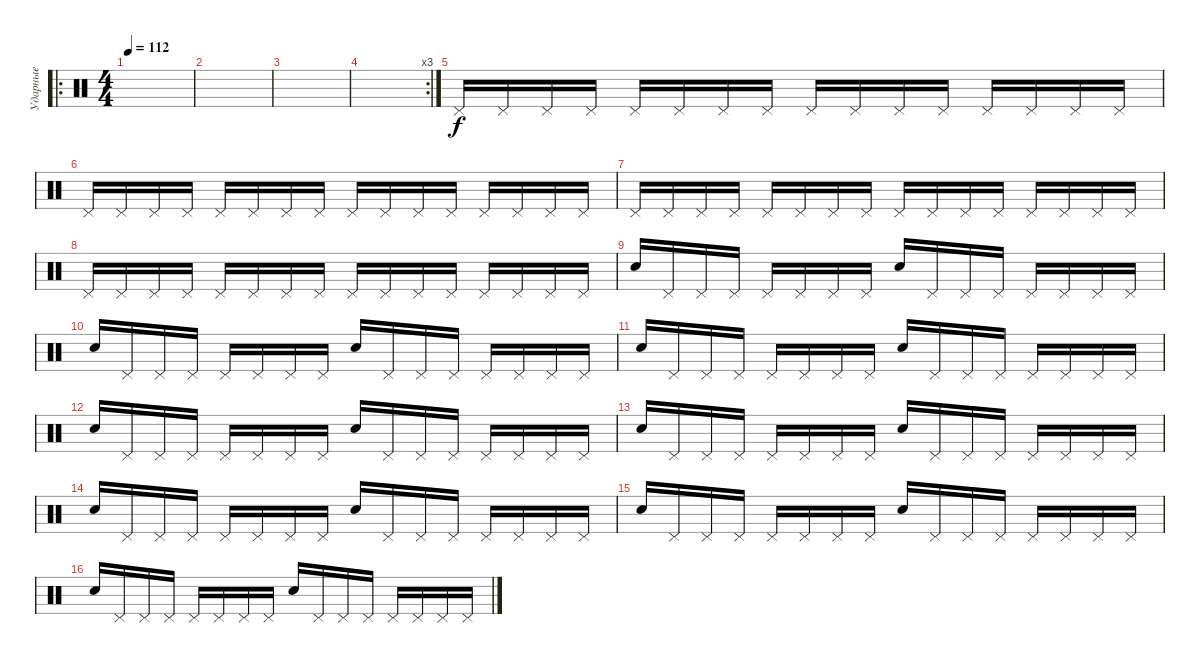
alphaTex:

\track ("Ударные" "Ударные") {instrument percussion}
\staff {score}
\articulation defaults
\ro
\ts (4 4)
\tempo 112
\clef neutral
\ks c
|
|
|
\rc 3
|
"Pedal Hi-Hat (hit)".16 "Pedal Hi-Hat (hit)".16 "Pedal Hi-Hat (hit)".16 "Pedal Hi-Hat (hit)".16 "Pedal Hi-Hat (hit)".16 "Pedal Hi-Hat (hit)".16 "Pedal Hi-Hat (hit)".16 "Pedal Hi-Hat (hit)".16 "Pedal Hi-Hat (hit)".16 "Pedal Hi-Hat (hit)".16 "Pedal Hi-Hat (hit)".16 "Pedal Hi-Hat (hit)".16 "Pedal Hi-Hat (hit)".16 "Pedal Hi-Hat (hit)".16 "Pedal Hi-Hat (hit)".16 "Pedal Hi-Hat (hit)".16 |
"Pedal Hi-Hat (hit)".16 "Pedal Hi-Hat (hit)".16 "Pedal Hi-Hat (hit)".16 "Pedal Hi-Hat (hit)".16 "Pedal Hi-Hat (hit)".16 "Pedal Hi-Hat (hit)".16 "Pedal Hi-Hat (hit)".16 "Pedal Hi-Hat (hit)".16 "Pedal Hi-Hat (hit)".16 "Pedal Hi-Hat (hit)".16 "Pedal Hi-Hat (hit)".16 "Pedal Hi-Hat (hit)".16 "Pedal Hi-Hat (hit)".16 "Pedal Hi-Hat (hit)".16 "Pedal Hi-Hat (hit)".16 "Pedal Hi-Hat (hit)".16 |
"Pedal Hi-Hat (hit)".16 "Pedal Hi-Hat (hit)".16 "Pedal Hi-Hat (hit)".16 "Pedal Hi-Hat (hit)".16 "Pedal Hi-Hat (hit)".16 "Pedal Hi-Hat (hit)".16 "Pedal Hi-Hat (hit)".16 "Pedal Hi-Hat (hit)".16 "Pedal Hi-Hat (hit)".16 "Pedal Hi-Hat (hit)".16 "Pedal Hi-Hat (hit)".16 "Pedal Hi-Hat (hit)".16 "Pedal Hi-Hat (hit)".16 "Pedal Hi-Hat (hit)".16 "Pedal Hi-Hat (hit)".16 "Pedal Hi-Hat (hit)".16 |
"Pedal Hi-Hat (hit)".16 "Pedal Hi-Hat (hit)".16 "Pedal Hi-Hat (hit)".16 "Pedal Hi-Hat (hit)".16 "Pedal Hi-Hat (hit)".16 "Pedal Hi-Hat (hit)".16 "Pedal Hi-Hat (hit)".16 "Pedal Hi-Hat (hit)".16 "Pedal Hi-Hat (hit)".16 "Pedal Hi-Hat (hit)".16 "Pedal Hi-Hat (hit)".16 "Pedal Hi-Hat (hit)".16 "Pedal Hi-Hat (hit)".16 "Pedal Hi-Hat (hit)".16 "Pedal Hi-Hat (hit)".16 "Pedal Hi-Hat (hit)".16 |
"Electric Snare (hit)".16 "Pedal Hi-Hat (hit)".16 "Pedal Hi-Hat (hit)".16 "Pedal Hi-Hat (hit)".16 "Pedal Hi-Hat (hit)".16 "Pedal Hi-Hat (hit)".16 "Pedal Hi-Hat (hit)".16 "Pedal Hi-Hat (hit)".16 "Electric Snare (hit)".16 "Pedal Hi-Hat (hit)".16 "Pedal Hi-Hat (hit)".16 "Pedal Hi-Hat (hit)".16 "Pedal Hi-Hat (hit)".16 "Pedal Hi-Hat (hit)".16 "Pedal Hi-Hat (hit)".16 "Pedal Hi-Hat (hit)".16 |
"Electric Snare (hit)".16 "Pedal Hi-Hat (hit)".16 "Pedal Hi-Hat (hit)".16 "Pedal Hi-Hat (hit)".16 "Pedal Hi-Hat (hit)".16 "Pedal Hi-Hat (hit)".16 "Pedal Hi-Hat (hit)".16 "Pedal Hi-Hat (hit)".16 "Electric Snare (hit)".16 "Pedal Hi-Hat (hit)".16 "Pedal Hi-Hat (hit)".16 "Pedal Hi-Hat (hit)".16 "Pedal Hi-Hat (hit)".16 "Pedal Hi-Hat (hit)".16 "Pedal Hi-Hat (hit)".16 "Pedal Hi-Hat (hit)".16 |
"Electric Snare (hit)".16 "Pedal Hi-Hat (hit)".16 "Pedal Hi-Hat (hit)".16 "Pedal Hi-Hat (hit)".16 "Pedal Hi-Hat (hit)".16 "Pedal Hi-Hat (hit)".16 "Pedal Hi-Hat (hit)".16 "Pedal Hi-Hat (hit)".16 "Electric Snare (hit)".16 "Pedal Hi-Hat (hit)".16 "Pedal Hi-Hat (hit)".16 "Pedal Hi-Hat (hit)".16 "Pedal Hi-Hat (hit)".16 "Pedal Hi-Hat (hit)".16 "Pedal Hi-Hat (hit)".16 "Pedal Hi-Hat (hit)".16 |
"Electric Snare (hit)".16 "Pedal Hi-Hat (hit)".16 "Pedal Hi-Hat (hit)".16 "Pedal Hi-Hat (hit)".16 "Pedal Hi-Hat (hit)".16 "Pedal Hi-Hat (hit)".16 "Pedal Hi-Hat (hit)".16 "Pedal Hi-Hat (hit)".16 "Electric Snare (hit)".16 "Pedal Hi-Hat (hit)".16 "Pedal Hi-Hat (hit)".16 "Pedal Hi-Hat (hit)".16 "Pedal Hi-Hat (hit)".16 "Pedal Hi-Hat (hit)".16 "Pedal Hi-Hat (hit)".16 "Pedal Hi-Hat (hit)".16 |
"Electric Snare (hit)".16 "Pedal Hi-Hat (hit)".16 "Pedal Hi-Hat (hit)".16 "Pedal Hi-Hat (hit)".16 "Pedal Hi-Hat (hit)".16 "Pedal Hi-Hat (hit)".16 "Pedal Hi-Hat (hit)".16 "Pedal Hi-Hat (hit)".16 "Electric Snare (hit)".16 "Pedal Hi-Hat (hit)".16 "Pedal Hi-Hat (hit)".16 "Pedal Hi-Hat (hit)".16 "Pedal Hi-Hat (hit)".16 "Pedal Hi-Hat (hit)".16 "Pedal Hi-Hat (hit)".16 "Pedal Hi-Hat (hit)".16 |
"Electric Snare (hit)".16 "Pedal Hi-Hat (hit)".16 "Pedal Hi-Hat (hit)".16 "Pedal Hi-Hat (hit)".16 "Pedal Hi-Hat (hit)".16 "Pedal Hi-Hat (hit)".16 "Pedal Hi-Hat (hit)".16 "Pedal Hi-Hat (hit)".16 "Electric Snare (hit)".16 "Pedal Hi-Hat (hit)".16 "Pedal Hi-Hat (hit)".16 "Pedal Hi-Hat (hit)".16 "Pedal Hi-Hat (hit)".16 "Pedal Hi-Hat (hit)".16 "Pedal Hi-Hat (hit)".16 "Pedal Hi-Hat (hit)".16 |
"Electric Snare (hit)".16 "Pedal Hi-Hat (hit)".16 "Pedal Hi-Hat (hit)".16 "Pedal Hi-Hat (hit)".16 "Pedal Hi-Hat (hit)".16 "Pedal Hi-Hat (hit)".16 "Pedal Hi-Hat (hit)".16 "Pedal Hi-Hat (hit)".16 "Electric Snare (hit)".16 "Pedal Hi-Hat (hit)".16 "Pedal Hi-Hat (hit)".16 "Pedal Hi-Hat (hit)".16 "Pedal Hi-Hat (hit)".16 "Pedal Hi-Hat (hit)".16 "Pedal Hi-Hat (hit)".16 "Pedal Hi-Hat (hit)".16 |
"Electric Snare (hit)".16 "Pedal Hi-Hat (hit)".16 "Pedal Hi-Hat (hit)".16 "Pedal Hi-Hat (hit)".16 "Pedal Hi-Hat (hit)".16 "Pedal Hi-Hat (hit)".16 "Pedal Hi-Hat (hit)".16 "Pedal Hi-Hat (hit)".16 "Electric Snare (hit)".16 "Pedal Hi-Hat (hit)".16 "Pedal Hi-Hat (hit)".16 "Pedal Hi-Hat (hit)".16 "Pedal Hi-Hat (hit)".16 "Pedal Hi-Hat (hit)".16 "Pedal Hi-Hat (hit)".16 "Pedal Hi-Hat (hit)".16
